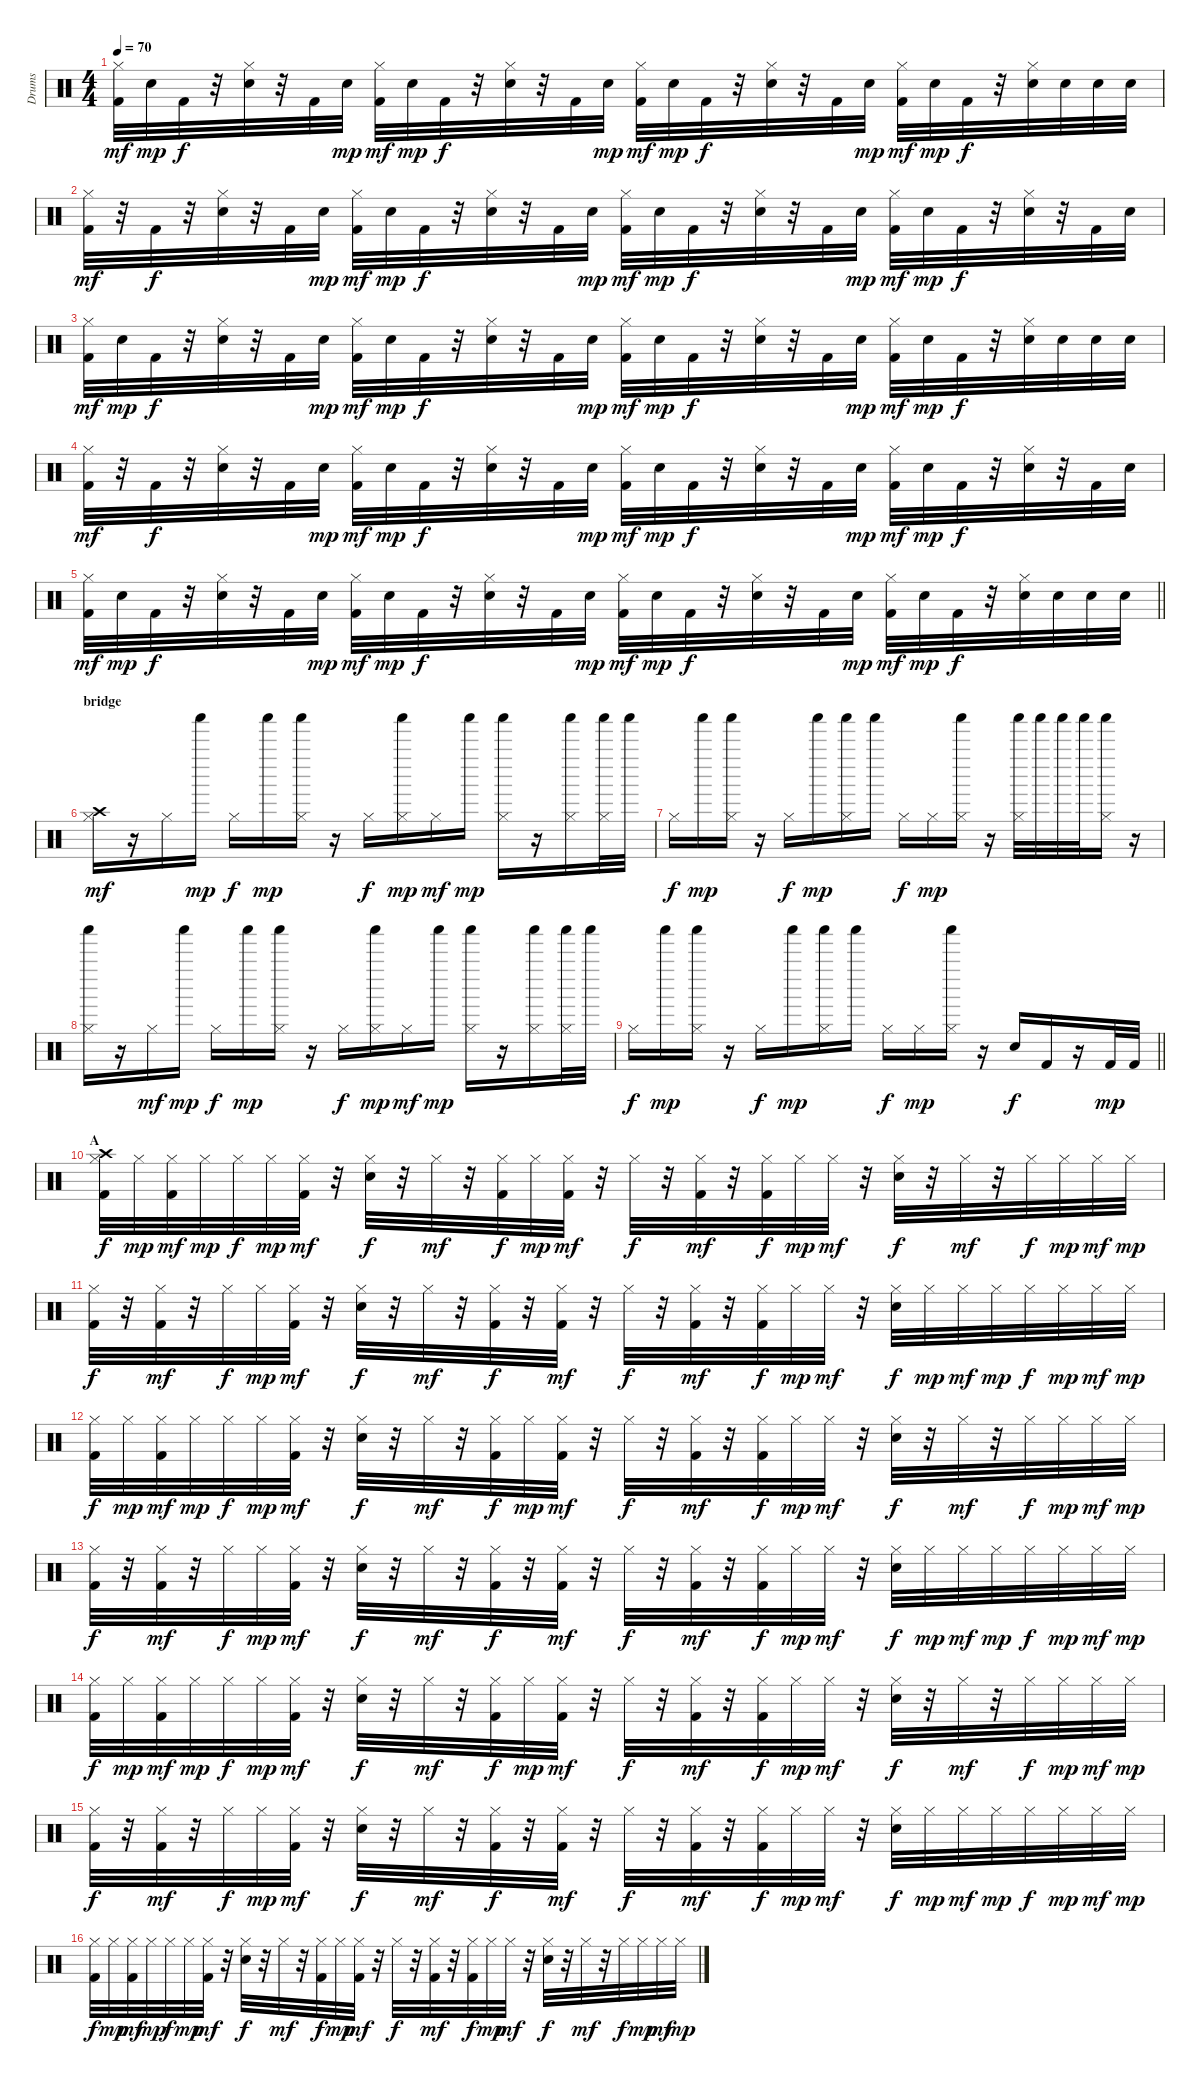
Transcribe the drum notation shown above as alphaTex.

\track ("Drums" "Drums") {instrument percussion}
\staff
\articulation defaults
\ts (4 4)
\tempo 70
\clef neutral
\ks c
("Hi-Hat (closed)" "Kick (hit) 2").32{dy mf} "Electric Snare (hit)".32{dy mp} "Kick (hit) 2".32{dy f} r.32 ("Hi-Hat (closed)" "Electric Snare (hit)").32 r.32 "Kick (hit) 2".32 "Electric Snare (hit)".32{dy mp} ("Hi-Hat (closed)" "Kick (hit) 2").32{dy mf} "Electric Snare (hit)".32{dy mp} "Kick (hit) 2".32{dy f} r.32 ("Hi-Hat (closed)" "Electric Snare (hit)").32 r.32 "Kick (hit) 2".32 "Electric Snare (hit)".32{dy mp} ("Hi-Hat (closed)" "Kick (hit) 2").32{dy mf} "Electric Snare (hit)".32{dy mp} "Kick (hit) 2".32{dy f} r.32 ("Hi-Hat (closed)" "Electric Snare (hit)").32 r.32 "Kick (hit) 2".32 "Electric Snare (hit)".32{dy mp} ("Hi-Hat (closed)" "Kick (hit) 2").32{dy mf} "Electric Snare (hit)".32{dy mp} "Kick (hit) 2".32{dy f} r.32 ("Hi-Hat (closed)" "Electric Snare (hit)").32 "Electric Snare (hit)".32 "Electric Snare (hit)".32 "Electric Snare (hit)".32 |
("Hi-Hat (closed)" "Kick (hit) 2").32{dy mf} r.32 "Kick (hit) 2".32{dy f} r.32 ("Hi-Hat (closed)" "Electric Snare (hit)").32 r.32 "Kick (hit) 2".32 "Electric Snare (hit)".32{dy mp} ("Hi-Hat (closed)" "Kick (hit) 2").32{dy mf} "Electric Snare (hit)".32{dy mp} "Kick (hit) 2".32{dy f} r.32 ("Hi-Hat (closed)" "Electric Snare (hit)").32 r.32 "Kick (hit) 2".32 "Electric Snare (hit)".32{dy mp} ("Hi-Hat (closed)" "Kick (hit) 2").32{dy mf} "Electric Snare (hit)".32{dy mp} "Kick (hit) 2".32{dy f} r.32 ("Hi-Hat (closed)" "Electric Snare (hit)").32 r.32 "Kick (hit) 2".32 "Electric Snare (hit)".32{dy mp} ("Hi-Hat (closed)" "Kick (hit) 2").32{dy mf} "Electric Snare (hit)".32{dy mp} "Kick (hit) 2".32{dy f} r.32 ("Hi-Hat (closed)" "Electric Snare (hit)").32 r.32 "Kick (hit) 2".32 "Electric Snare (hit)".32 |
("Hi-Hat (closed)" "Kick (hit) 2").32{dy mf} "Electric Snare (hit)".32{dy mp} "Kick (hit) 2".32{dy f} r.32 ("Hi-Hat (closed)" "Electric Snare (hit)").32 r.32 "Kick (hit) 2".32 "Electric Snare (hit)".32{dy mp} ("Hi-Hat (closed)" "Kick (hit) 2").32{dy mf} "Electric Snare (hit)".32{dy mp} "Kick (hit) 2".32{dy f} r.32 ("Hi-Hat (closed)" "Electric Snare (hit)").32 r.32 "Kick (hit) 2".32 "Electric Snare (hit)".32{dy mp} ("Hi-Hat (closed)" "Kick (hit) 2").32{dy mf} "Electric Snare (hit)".32{dy mp} "Kick (hit) 2".32{dy f} r.32 ("Hi-Hat (closed)" "Electric Snare (hit)").32 r.32 "Kick (hit) 2".32 "Electric Snare (hit)".32{dy mp} ("Hi-Hat (closed)" "Kick (hit) 2").32{dy mf} "Electric Snare (hit)".32{dy mp} "Kick (hit) 2".32{dy f} r.32 ("Hi-Hat (closed)" "Electric Snare (hit)").32 "Electric Snare (hit)".32 "Electric Snare (hit)".32 "Electric Snare (hit)".32 |
("Hi-Hat (closed)" "Kick (hit) 2").32{dy mf} r.32 "Kick (hit) 2".32{dy f} r.32 ("Hi-Hat (closed)" "Electric Snare (hit)").32 r.32 "Kick (hit) 2".32 "Electric Snare (hit)".32{dy mp} ("Hi-Hat (closed)" "Kick (hit) 2").32{dy mf} "Electric Snare (hit)".32{dy mp} "Kick (hit) 2".32{dy f} r.32 ("Hi-Hat (closed)" "Electric Snare (hit)").32 r.32 "Kick (hit) 2".32 "Electric Snare (hit)".32{dy mp} ("Hi-Hat (closed)" "Kick (hit) 2").32{dy mf} "Electric Snare (hit)".32{dy mp} "Kick (hit) 2".32{dy f} r.32 ("Hi-Hat (closed)" "Electric Snare (hit)").32 r.32 "Kick (hit) 2".32 "Electric Snare (hit)".32{dy mp} ("Hi-Hat (closed)" "Kick (hit) 2").32{dy mf} "Electric Snare (hit)".32{dy mp} "Kick (hit) 2".32{dy f} r.32 ("Hi-Hat (closed)" "Electric Snare (hit)").32 r.32 "Kick (hit) 2".32 "Electric Snare (hit)".32 |
\barLineRight lightlight
("Hi-Hat (closed)" "Kick (hit) 2").32{dy mf} "Electric Snare (hit)".32{dy mp} "Kick (hit) 2".32{dy f} r.32 ("Hi-Hat (closed)" "Electric Snare (hit)").32 r.32 "Kick (hit) 2".32 "Electric Snare (hit)".32{dy mp} ("Hi-Hat (closed)" "Kick (hit) 2").32{dy mf} "Electric Snare (hit)".32{dy mp} "Kick (hit) 2".32{dy f} r.32 ("Hi-Hat (closed)" "Electric Snare (hit)").32 r.32 "Kick (hit) 2".32 "Electric Snare (hit)".32{dy mp} ("Hi-Hat (closed)" "Kick (hit) 2").32{dy mf} "Electric Snare (hit)".32{dy mp} "Kick (hit) 2".32{dy f} r.32 ("Hi-Hat (closed)" "Electric Snare (hit)").32 r.32 "Kick (hit) 2".32 "Electric Snare (hit)".32{dy mp} ("Hi-Hat (closed)" "Kick (hit) 2").32{dy mf} "Electric Snare (hit)".32{dy mp} "Kick (hit) 2".32{dy f} r.32 ("Hi-Hat (closed)" "Electric Snare (hit)").32 "Electric Snare (hit)".32 "Electric Snare (hit)".32 "Electric Snare (hit)".32 |
\section ("" "bridge")
("Hi-Hat (closed)" "Crash high (hit)").16{dy mf} r.16 "Hi-Hat (closed)".16 "Shaker (hit)".16{dy mp} "Hi-Hat (closed)".16{dy f} "Shaker (hit)".16{dy mp} ("Hi-Hat (closed)" "Shaker (hit)").16 r.16 "Hi-Hat (closed)".16{dy f} ("Hi-Hat (closed)" "Shaker (hit)").16{dy mp} "Hi-Hat (closed)".16{dy mf} "Shaker (hit)".16{dy mp} ("Hi-Hat (closed)" "Shaker (hit)").16 r.16 ("Hi-Hat (closed)" "Shaker (hit)").16 ("Hi-Hat (closed)" "Shaker (hit)").32 "Shaker (hit)".32 |
"Hi-Hat (closed)".16{dy f} "Shaker (hit)".16{dy mp} ("Hi-Hat (closed)" "Shaker (hit)").16 r.16 "Hi-Hat (closed)".16{dy f} "Shaker (hit)".16{dy mp} ("Hi-Hat (closed)" "Shaker (hit)").16 "Shaker (hit)".16 "Hi-Hat (closed)".16{dy f} "Hi-Hat (closed)".16{dy mp} ("Hi-Hat (closed)" "Shaker (hit)").16 r.16 ("Hi-Hat (closed)" "Shaker (hit)").32 "Shaker (hit)".32 "Shaker (hit)".32 "Shaker (hit)".32 ("Hi-Hat (closed)" "Shaker (hit)").16 r.16 |
("Hi-Hat (closed)" "Shaker (hit)").16 r.16 "Hi-Hat (closed)".16{dy mf} "Shaker (hit)".16{dy mp} "Hi-Hat (closed)".16{dy f} "Shaker (hit)".16{dy mp} ("Hi-Hat (closed)" "Shaker (hit)").16 r.16 "Hi-Hat (closed)".16{dy f} ("Hi-Hat (closed)" "Shaker (hit)").16{dy mp} "Hi-Hat (closed)".16{dy mf} "Shaker (hit)".16{dy mp} ("Hi-Hat (closed)" "Shaker (hit)").16 r.16 ("Hi-Hat (closed)" "Shaker (hit)").16 ("Hi-Hat (closed)" "Shaker (hit)").32 "Shaker (hit)".32 |
\barLineRight lightlight "Hi-Hat (closed)".16{dy f} "Shaker (hit)".16{dy mp}
("Hi-Hat (closed)" "Shaker (hit)").16 r.16 "Hi-Hat (closed)".16{dy f} "Shaker (hit)".16{dy mp} ("Hi-Hat (closed)" "Shaker (hit)").16 "Shaker (hit)".16 "Hi-Hat (closed)".16{dy f} "Hi-Hat (closed)".16{dy mp} ("Hi-Hat (closed)" "Shaker (hit)").16 r.16 "Electric Snare (hit)".16{dy f} "Kick (hit) 2".16 r.16 "Kick (hit) 2".32{dy mp} "Kick (hit) 2".32 |
\section ("" "A")
("Hi-Hat (closed)" "Crash high (hit)" "Kick (hit) 2").32{dy f} "Hi-Hat (closed)".32{dy mp} ("Hi-Hat (closed)" "Kick (hit) 2").32{dy mf} "Hi-Hat (closed)".32{dy mp} "Hi-Hat (closed)".32{dy f} "Hi-Hat (closed)".32{dy mp} ("Hi-Hat (closed)" "Kick (hit) 2").32{dy mf} r.32 ("Hi-Hat (closed)" "Electric Snare (hit)").32{dy f} r.32 "Hi-Hat (closed)".32{dy mf} r.32 ("Hi-Hat (closed)" "Kick (hit) 2").32{dy f} "Hi-Hat (closed)".32{dy mp} ("Hi-Hat (closed)" "Kick (hit) 2").32{dy mf} r.32 "Hi-Hat (closed)".32{dy f} r.32 ("Hi-Hat (closed)" "Kick (hit) 2").32{dy mf} r.32 ("Hi-Hat (closed)" "Kick (hit) 2").32{dy f} "Hi-Hat (closed)".32{dy mp} "Hi-Hat (closed)".32{dy mf} r.32 ("Hi-Hat (closed)" "Electric Snare (hit)").32{dy f} r.32 "Hi-Hat (closed)".32{dy mf} r.32 "Hi-Hat (closed)".32{dy f} "Hi-Hat (closed)".32{dy mp} "Hi-Hat (closed)".32{dy mf} "Hi-Hat (closed)".32{dy mp} |
("Hi-Hat (closed)" "Kick (hit) 2").32{dy f} r.32 ("Hi-Hat (closed)" "Kick (hit) 2").32{dy mf} r.32 "Hi-Hat (closed)".32{dy f} "Hi-Hat (closed)".32{dy mp} ("Hi-Hat (closed)" "Kick (hit) 2").32{dy mf} r.32 ("Hi-Hat (closed)" "Electric Snare (hit)").32{dy f} r.32 "Hi-Hat (closed)".32{dy mf} r.32 ("Hi-Hat (closed)" "Kick (hit) 2").32{dy f} r.32 ("Hi-Hat (closed)" "Kick (hit) 2").32{dy mf} r.32 "Hi-Hat (closed)".32{dy f} r.32 ("Hi-Hat (closed)" "Kick (hit) 2").32{dy mf} r.32 ("Hi-Hat (closed)" "Kick (hit) 2").32{dy f} "Hi-Hat (closed)".32{dy mp} "Hi-Hat (closed)".32{dy mf} r.32 ("Hi-Hat (closed)" "Electric Snare (hit)").32{dy f} "Hi-Hat (closed)".32{dy mp} "Hi-Hat (closed)".32{dy mf} "Hi-Hat (closed)".32{dy mp} "Hi-Hat (closed)".32{dy f} "Hi-Hat (closed)".32{dy mp} "Hi-Hat (closed)".32{dy mf} "Hi-Hat (closed)".32{dy mp} |
("Hi-Hat (closed)" "Kick (hit) 2").32{dy f} "Hi-Hat (closed)".32{dy mp} ("Hi-Hat (closed)" "Kick (hit) 2").32{dy mf} "Hi-Hat (closed)".32{dy mp} "Hi-Hat (closed)".32{dy f} "Hi-Hat (closed)".32{dy mp} ("Hi-Hat (closed)" "Kick (hit) 2").32{dy mf} r.32 ("Hi-Hat (closed)" "Electric Snare (hit)").32{dy f} r.32 "Hi-Hat (closed)".32{dy mf} r.32 ("Hi-Hat (closed)" "Kick (hit) 2").32{dy f} "Hi-Hat (closed)".32{dy mp} ("Hi-Hat (closed)" "Kick (hit) 2").32{dy mf} r.32 "Hi-Hat (closed)".32{dy f} r.32 ("Hi-Hat (closed)" "Kick (hit) 2").32{dy mf} r.32 ("Hi-Hat (closed)" "Kick (hit) 2").32{dy f} "Hi-Hat (closed)".32{dy mp} "Hi-Hat (closed)".32{dy mf} r.32 ("Hi-Hat (closed)" "Electric Snare (hit)").32{dy f} r.32 "Hi-Hat (closed)".32{dy mf} r.32 "Hi-Hat (closed)".32{dy f} "Hi-Hat (closed)".32{dy mp} "Hi-Hat (closed)".32{dy mf} "Hi-Hat (closed)".32{dy mp} |
("Hi-Hat (closed)" "Kick (hit) 2").32{dy f} r.32 ("Hi-Hat (closed)" "Kick (hit) 2").32{dy mf} r.32 "Hi-Hat (closed)".32{dy f} "Hi-Hat (closed)".32{dy mp} ("Hi-Hat (closed)" "Kick (hit) 2").32{dy mf} r.32 ("Hi-Hat (closed)" "Electric Snare (hit)").32{dy f} r.32 "Hi-Hat (closed)".32{dy mf} r.32 ("Hi-Hat (closed)" "Kick (hit) 2").32{dy f} r.32 ("Hi-Hat (closed)" "Kick (hit) 2").32{dy mf} r.32 "Hi-Hat (closed)".32{dy f} r.32 ("Hi-Hat (closed)" "Kick (hit) 2").32{dy mf} r.32 ("Hi-Hat (closed)" "Kick (hit) 2").32{dy f} "Hi-Hat (closed)".32{dy mp} "Hi-Hat (closed)".32{dy mf} r.32 ("Hi-Hat (closed)" "Electric Snare (hit)").32{dy f} "Hi-Hat (closed)".32{dy mp} "Hi-Hat (closed)".32{dy mf} "Hi-Hat (closed)".32{dy mp} "Hi-Hat (closed)".32{dy f} "Hi-Hat (closed)".32{dy mp} "Hi-Hat (closed)".32{dy mf} "Hi-Hat (closed)".32{dy mp} |
("Hi-Hat (closed)" "Kick (hit) 2").32{dy f} "Hi-Hat (closed)".32{dy mp} ("Hi-Hat (closed)" "Kick (hit) 2").32{dy mf} "Hi-Hat (closed)".32{dy mp} "Hi-Hat (closed)".32{dy f} "Hi-Hat (closed)".32{dy mp} ("Hi-Hat (closed)" "Kick (hit) 2").32{dy mf} r.32 ("Hi-Hat (closed)" "Electric Snare (hit)").32{dy f} r.32 "Hi-Hat (closed)".32{dy mf} r.32 ("Hi-Hat (closed)" "Kick (hit) 2").32{dy f} "Hi-Hat (closed)".32{dy mp} ("Hi-Hat (closed)" "Kick (hit) 2").32{dy mf} r.32 "Hi-Hat (closed)".32{dy f} r.32 ("Hi-Hat (closed)" "Kick (hit) 2").32{dy mf} r.32 ("Hi-Hat (closed)" "Kick (hit) 2").32{dy f} "Hi-Hat (closed)".32{dy mp} "Hi-Hat (closed)".32{dy mf} r.32 ("Hi-Hat (closed)" "Electric Snare (hit)").32{dy f} r.32 "Hi-Hat (closed)".32{dy mf} r.32 "Hi-Hat (closed)".32{dy f} "Hi-Hat (closed)".32{dy mp} "Hi-Hat (closed)".32{dy mf} "Hi-Hat (closed)".32{dy mp} |
("Hi-Hat (closed)" "Kick (hit) 2").32{dy f} r.32 ("Hi-Hat (closed)" "Kick (hit) 2").32{dy mf} r.32 "Hi-Hat (closed)".32{dy f} "Hi-Hat (closed)".32{dy mp} ("Hi-Hat (closed)" "Kick (hit) 2").32{dy mf} r.32 ("Hi-Hat (closed)" "Electric Snare (hit)").32{dy f} r.32 "Hi-Hat (closed)".32{dy mf} r.32 ("Hi-Hat (closed)" "Kick (hit) 2").32{dy f} r.32 ("Hi-Hat (closed)" "Kick (hit) 2").32{dy mf} r.32 "Hi-Hat (closed)".32{dy f} r.32 ("Hi-Hat (closed)" "Kick (hit) 2").32{dy mf} r.32 ("Hi-Hat (closed)" "Kick (hit) 2").32{dy f} "Hi-Hat (closed)".32{dy mp} "Hi-Hat (closed)".32{dy mf} r.32 ("Hi-Hat (closed)" "Electric Snare (hit)").32{dy f} "Hi-Hat (closed)".32{dy mp} "Hi-Hat (closed)".32{dy mf} "Hi-Hat (closed)".32{dy mp} "Hi-Hat (closed)".32{dy f} "Hi-Hat (closed)".32{dy mp} "Hi-Hat (closed)".32{dy mf} "Hi-Hat (closed)".32{dy mp} |
("Hi-Hat (closed)" "Kick (hit) 2").32{dy f} "Hi-Hat (closed)".32{dy mp} ("Hi-Hat (closed)" "Kick (hit) 2").32{dy mf} "Hi-Hat (closed)".32{dy mp} "Hi-Hat (closed)".32{dy f} "Hi-Hat (closed)".32{dy mp} ("Hi-Hat (closed)" "Kick (hit) 2").32{dy mf} r.32 ("Hi-Hat (closed)" "Electric Snare (hit)").32{dy f} r.32 "Hi-Hat (closed)".32{dy mf} r.32 ("Hi-Hat (closed)" "Kick (hit) 2").32{dy f} "Hi-Hat (closed)".32{dy mp} ("Hi-Hat (closed)" "Kick (hit) 2").32{dy mf} r.32 "Hi-Hat (closed)".32{dy f} r.32 ("Hi-Hat (closed)" "Kick (hit) 2").32{dy mf} r.32 ("Hi-Hat (closed)" "Kick (hit) 2").32{dy f} "Hi-Hat (closed)".32{dy mp} "Hi-Hat (closed)".32{dy mf} r.32 ("Hi-Hat (closed)" "Electric Snare (hit)").32{dy f} r.32 "Hi-Hat (closed)".32{dy mf} r.32 "Hi-Hat (closed)".32{dy f} "Hi-Hat (closed)".32{dy mp} "Hi-Hat (closed)".32{dy mf} "Hi-Hat (closed)".32{dy mp}
